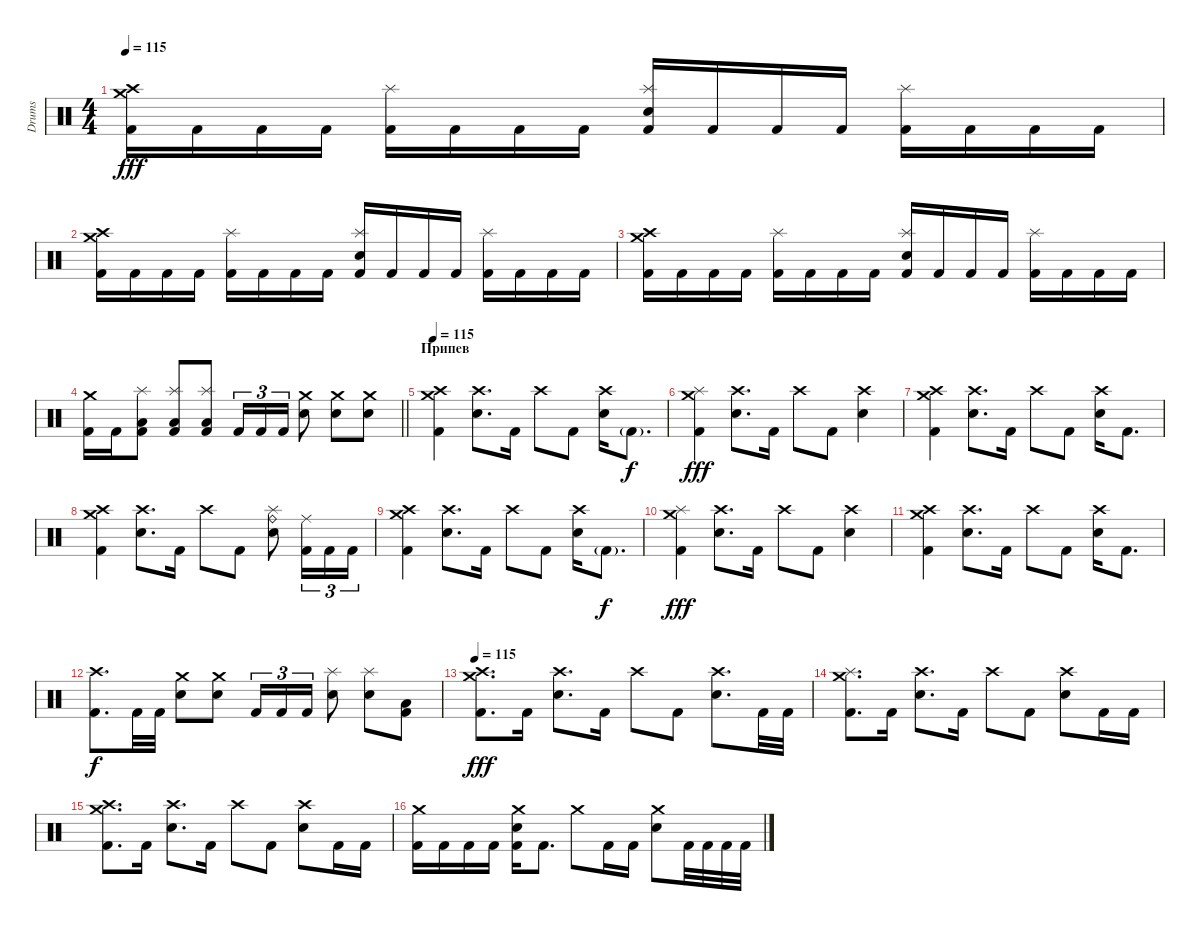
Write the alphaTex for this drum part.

\track ("Drums " "Drums ") {instrument percussion}
\staff {score}
\articulation defaults
\ts (4 4)
\tempo 115
\clef neutral
\ks c
("Crash medium (hit)" "Crash high (hit)" "Kick (hit) 2").16{dy fff} "Kick (hit) 2".16 "Kick (hit) 2".16 "Kick (hit) 2".16 ("Splash (hit)" "Kick (hit) 2").16 "Kick (hit) 2".16 "Kick (hit) 2".16 "Kick (hit) 2".16 ("Splash (hit)" "Electric Snare (hit)" "Kick (hit) 2").16 "Kick (hit) 2".16 "Kick (hit) 2".16 "Kick (hit) 2".16 ("Splash (hit)" "Kick (hit) 2").16 "Kick (hit) 2".16 "Kick (hit) 2".16 "Kick (hit) 2".16 |
("Crash medium (hit)" "Crash high (hit)" "Kick (hit) 2").16 "Kick (hit) 2".16 "Kick (hit) 2".16 "Kick (hit) 2".16 ("Splash (hit)" "Kick (hit) 2").16 "Kick (hit) 2".16 "Kick (hit) 2".16 "Kick (hit) 2".16 ("Splash (hit)" "Electric Snare (hit)" "Kick (hit) 2").16 "Kick (hit) 2".16 "Kick (hit) 2".16 "Kick (hit) 2".16 ("Splash (hit)" "Kick (hit) 2").16 "Kick (hit) 2".16 "Kick (hit) 2".16 "Kick (hit) 2".16 |
("Crash medium (hit)" "Crash high (hit)" "Kick (hit) 2").16 "Kick (hit) 2".16 "Kick (hit) 2".16 "Kick (hit) 2".16 ("Splash (hit)" "Kick (hit) 2").16 "Kick (hit) 2".16 "Kick (hit) 2".16 "Kick (hit) 2".16 ("Splash (hit)" "Electric Snare (hit)" "Kick (hit) 2").16 "Kick (hit) 2".16 "Kick (hit) 2".16 "Kick (hit) 2".16 ("Splash (hit)" "Kick (hit) 2").16 "Kick (hit) 2".16 "Kick (hit) 2".16 "Kick (hit) 2".16 |
\barLineRight lightlight
("Crash medium (hit)" "Kick (hit) 2").16 "Kick (hit) 2".16 ("Splash (hit)" "Low Floor Tom (hit)" "Kick (hit) 2").8 ("Splash (hit)" "Low Floor Tom (hit)" "Kick (hit) 2").8 ("Splash (hit)" "Low Floor Tom (hit)" "Kick (hit) 2").8 "Kick (hit) 2".16{tu (3 2)} "Kick (hit) 2".16{tu (3 2)} "Kick (hit) 2".16{tu (3 2)} ("Crash medium (hit)" "Electric Snare (hit)").8 ("Crash medium (hit)" "Electric Snare (hit)").8 ("Crash medium (hit)" "Electric Snare (hit)").8 |
\section ("" "Припев")
\tempo 115
("Crash medium (hit)" "Crash high (hit)" "Kick (hit) 2").4 ("Crash high (hit)" "Electric Snare (hit)").8{d} "Kick (hit) 2".16 "Crash high (hit)".8 "Kick (hit) 2".8 ("Crash high (hit)" "Electric Snare (hit)").16 "Kick (hit) 2"{g}.8{d dy f} |
("Crash medium (hit)" "Splash (hit)" "Kick (hit) 2").4{dy fff} ("Crash high (hit)" "Electric Snare (hit)").8{d} "Kick (hit) 2".16 "Crash high (hit)".8 "Kick (hit) 2".8 ("Crash high (hit)" "Electric Snare (hit)").4 |
("Crash medium (hit)" "Crash high (hit)" "Kick (hit) 2").4 ("Crash high (hit)" "Electric Snare (hit)").8{d} "Kick (hit) 2".16 "Crash high (hit)".8 "Kick (hit) 2".8 ("Crash high (hit)" "Electric Snare (hit)").16 "Kick (hit) 2".8{d} |
("Crash medium (hit)" "Crash high (hit)" "Kick (hit) 2").4 ("Crash high (hit)" "Electric Snare (hit)").8{d} "Kick (hit) 2".16 "Crash high (hit)".8 "Kick (hit) 2".8 ("Ride (bell)" "Splash (hit)" "Electric Snare (hit)").8 ("Ride (middle)" "Kick (hit) 2").16{tu (3 2)} "Kick (hit) 2".16{tu (3 2)} "Kick (hit) 2".16{tu (3 2)} |
("Crash medium (hit)" "Crash high (hit)" "Kick (hit) 2").4 ("Crash high (hit)" "Electric Snare (hit)").8{d} "Kick (hit) 2".16 "Crash high (hit)".8 "Kick (hit) 2".8 ("Crash high (hit)" "Electric Snare (hit)").16 "Kick (hit) 2"{g}.8{d dy f} |
("Crash medium (hit)" "Splash (hit)" "Kick (hit) 2").4{dy fff} ("Crash high (hit)" "Electric Snare (hit)").8{d} "Kick (hit) 2".16 "Crash high (hit)".8 "Kick (hit) 2".8 ("Crash high (hit)" "Electric Snare (hit)").4 |
("Crash medium (hit)" "Crash high (hit)" "Kick (hit) 2").4 ("Crash high (hit)" "Electric Snare (hit)").8{d} "Kick (hit) 2".16 "Crash high (hit)".8 "Kick (hit) 2".8 ("Crash high (hit)" "Electric Snare (hit)").16 "Kick (hit) 2".8{d} |
("Crash high (hit)" "Kick (hit) 2").8{d dy f} "Kick (hit) 2".32 "Kick (hit) 2".32 ("Crash medium (hit)" "Electric Snare (hit)").8 ("Crash medium (hit)" "Electric Snare (hit)").8 "Kick (hit) 2".16{tu (3 2)} "Kick (hit) 2".16{tu (3 2)} "Kick (hit) 2".16{tu (3 2)} ("Splash (hit)" "Electric Snare (hit)").8 ("Splash (hit)" "Electric Snare (hit)").8 ("Low Floor Tom (hit)" "Kick (hit) 2").8 |
\tempo 115
("Crash medium (hit)" "Crash high (hit)" "Kick (hit) 2").8{d dy fff} "Kick (hit) 2".16 ("Crash high (hit)" "Electric Snare (hit)").8{d} "Kick (hit) 2".16 "Crash high (hit)".8 "Kick (hit) 2".8 ("Crash high (hit)" "Electric Snare (hit)").8{d} "Kick (hit) 2".32 "Kick (hit) 2".32 |
("Crash medium (hit)" "Splash (hit)" "Kick (hit) 2").8{d} "Kick (hit) 2".16 ("Crash high (hit)" "Electric Snare (hit)").8{d} "Kick (hit) 2".16 "Crash high (hit)".8 "Kick (hit) 2".8 ("Crash high (hit)" "Electric Snare (hit)").8 "Kick (hit) 2".16 "Kick (hit) 2".16 |
("Crash medium (hit)" "Crash high (hit)" "Kick (hit) 2").8{d} "Kick (hit) 2".16 ("Crash high (hit)" "Electric Snare (hit)").8{d} "Kick (hit) 2".16 "Crash high (hit)".8 "Kick (hit) 2".8 ("Crash high (hit)" "Electric Snare (hit)").8 "Kick (hit) 2".16 "Kick (hit) 2".16 |
("Crash medium (hit)" "Kick (hit) 2").16 "Kick (hit) 2".16 "Kick (hit) 2".16 "Kick (hit) 2".16 ("Crash medium (hit)" "Electric Snare (hit)" "Kick (hit) 2").16 "Kick (hit) 2".8{d} "Crash medium (hit)".8 "Kick (hit) 2".16 "Kick (hit) 2".16 ("Crash medium (hit)" "Electric Snare (hit)").8 "Kick (hit) 2".32 "Kick (hit) 2".32 "Kick (hit) 2".32 "Kick (hit) 2".32
